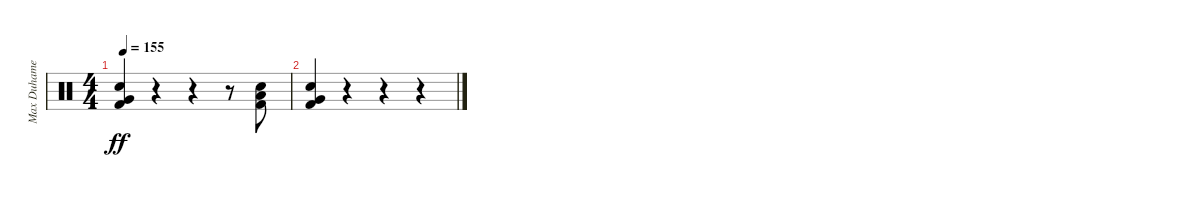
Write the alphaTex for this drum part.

\track ("Max Duhamel" "Max Duhame") {instrument percussion}
\staff {score}
\articulation defaults
\ts (4 4)
\tempo 155
\clef neutral
\ks c
("Electric Snare (hit)" "Very Low Tom (hit)" "Kick (hit) 2").4{dy ff} r.4 r.4 r.8 ("Electric Snare (hit)" "Low Tom (hit)" "Kick (hit) 2").8 |
("Electric Snare (hit)" "Very Low Tom (hit)" "Kick (hit) 2").4 r.4 r.4 r.4
